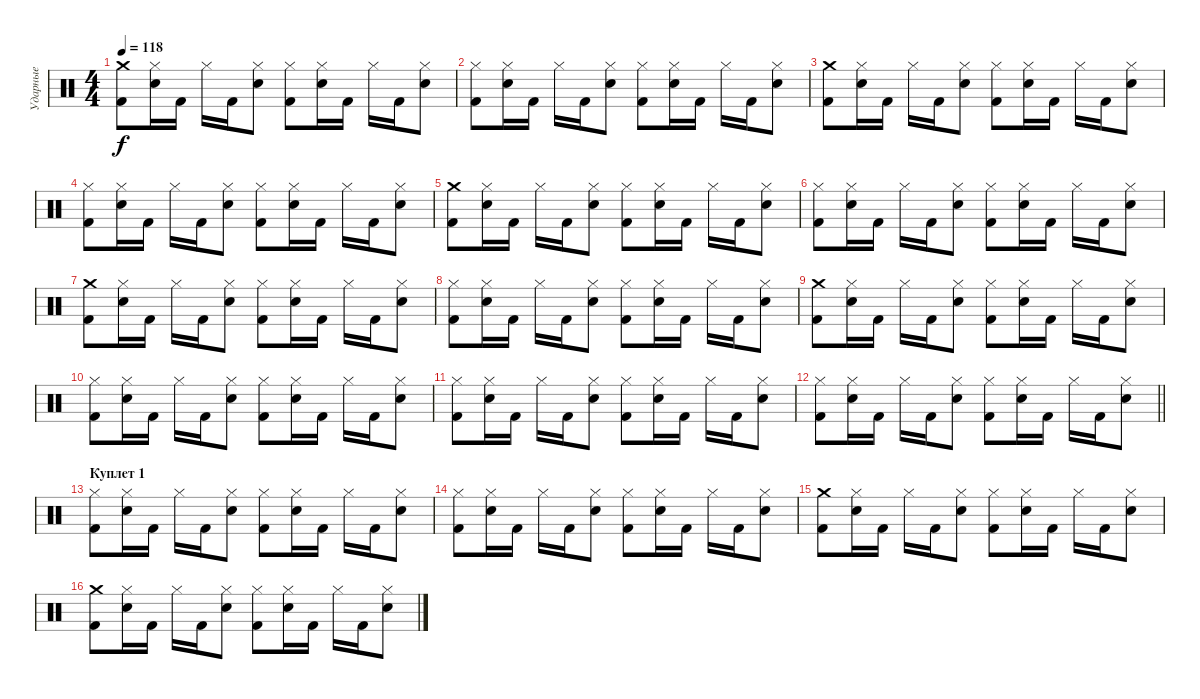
\track ("Ударные" "Ударные") {instrument percussion}
\staff {score}
\articulation defaults
\ts (4 4)
\tempo 118
\clef neutral
\ks c
("Crash medium (hit)" "Kick (hit) 2").8{dy f} ("Hi-Hat (closed)" "Snare (hit) 2").16 "Kick (hit) 2".16 "Hi-Hat (closed)".16 "Kick (hit) 2".16 ("Hi-Hat (closed)" "Snare (hit) 2").8 ("Hi-Hat (closed)" "Kick (hit) 2").8 ("Hi-Hat (closed)" "Snare (hit) 2").16 "Kick (hit) 2".16 "Hi-Hat (closed)".16 "Kick (hit) 2".16 ("Hi-Hat (closed)" "Snare (hit) 2").8 |
("Hi-Hat (closed)" "Kick (hit) 2").8 ("Hi-Hat (closed)" "Snare (hit) 2").16 "Kick (hit) 2".16 "Hi-Hat (closed)".16 "Kick (hit) 2".16 ("Hi-Hat (closed)" "Snare (hit) 2").8 ("Hi-Hat (closed)" "Kick (hit) 2").8 ("Hi-Hat (closed)" "Snare (hit) 2").16 "Kick (hit) 2".16 "Hi-Hat (closed)".16 "Kick (hit) 2".16 ("Hi-Hat (closed)" "Snare (hit) 2").8 |
("Crash medium (hit)" "Kick (hit) 2").8 ("Hi-Hat (closed)" "Snare (hit) 2").16 "Kick (hit) 2".16 "Hi-Hat (closed)".16 "Kick (hit) 2".16 ("Hi-Hat (closed)" "Snare (hit) 2").8 ("Hi-Hat (closed)" "Kick (hit) 2").8 ("Hi-Hat (closed)" "Snare (hit) 2").16 "Kick (hit) 2".16 "Hi-Hat (closed)".16 "Kick (hit) 2".16 ("Hi-Hat (closed)" "Snare (hit) 2").8 |
("Hi-Hat (closed)" "Kick (hit) 2").8 ("Hi-Hat (closed)" "Snare (hit) 2").16 "Kick (hit) 2".16 "Hi-Hat (closed)".16 "Kick (hit) 2".16 ("Hi-Hat (closed)" "Snare (hit) 2").8 ("Hi-Hat (closed)" "Kick (hit) 2").8 ("Hi-Hat (closed)" "Snare (hit) 2").16 "Kick (hit) 2".16 "Hi-Hat (closed)".16 "Kick (hit) 2".16 ("Hi-Hat (closed)" "Snare (hit) 2").8 |
("Crash medium (hit)" "Kick (hit) 2").8 ("Hi-Hat (closed)" "Snare (hit) 2").16 "Kick (hit) 2".16 "Hi-Hat (closed)".16 "Kick (hit) 2".16 ("Hi-Hat (closed)" "Snare (hit) 2").8 ("Hi-Hat (closed)" "Kick (hit) 2").8 ("Hi-Hat (closed)" "Snare (hit) 2").16 "Kick (hit) 2".16 "Hi-Hat (closed)".16 "Kick (hit) 2".16 ("Hi-Hat (closed)" "Snare (hit) 2").8 |
("Hi-Hat (closed)" "Kick (hit) 2").8 ("Hi-Hat (closed)" "Snare (hit) 2").16 "Kick (hit) 2".16 "Hi-Hat (closed)".16 "Kick (hit) 2".16 ("Hi-Hat (closed)" "Snare (hit) 2").8 ("Hi-Hat (closed)" "Kick (hit) 2").8 ("Hi-Hat (closed)" "Snare (hit) 2").16 "Kick (hit) 2".16 "Hi-Hat (closed)".16 "Kick (hit) 2".16 ("Hi-Hat (closed)" "Snare (hit) 2").8 |
("Crash medium (hit)" "Kick (hit) 2").8 ("Hi-Hat (closed)" "Snare (hit) 2").16 "Kick (hit) 2".16 "Hi-Hat (closed)".16 "Kick (hit) 2".16 ("Hi-Hat (closed)" "Snare (hit) 2").8 ("Hi-Hat (closed)" "Kick (hit) 2").8 ("Hi-Hat (closed)" "Snare (hit) 2").16 "Kick (hit) 2".16 "Hi-Hat (closed)".16 "Kick (hit) 2".16 ("Hi-Hat (closed)" "Snare (hit) 2").8 |
("Hi-Hat (closed)" "Kick (hit) 2").8 ("Hi-Hat (closed)" "Snare (hit) 2").16 "Kick (hit) 2".16 "Hi-Hat (closed)".16 "Kick (hit) 2".16 ("Hi-Hat (closed)" "Snare (hit) 2").8 ("Hi-Hat (closed)" "Kick (hit) 2").8 ("Hi-Hat (closed)" "Snare (hit) 2").16 "Kick (hit) 2".16 "Hi-Hat (closed)".16 "Kick (hit) 2".16 ("Hi-Hat (closed)" "Snare (hit) 2").8 |
("Crash medium (hit)" "Kick (hit) 2").8 ("Hi-Hat (closed)" "Snare (hit) 2").16 "Kick (hit) 2".16 "Hi-Hat (closed)".16 "Kick (hit) 2".16 ("Hi-Hat (closed)" "Snare (hit) 2").8 ("Hi-Hat (closed)" "Kick (hit) 2").8 ("Hi-Hat (closed)" "Snare (hit) 2").16 "Kick (hit) 2".16 "Hi-Hat (closed)".16 "Kick (hit) 2".16 ("Hi-Hat (closed)" "Snare (hit) 2").8 |
("Hi-Hat (closed)" "Kick (hit) 2").8 ("Hi-Hat (closed)" "Snare (hit) 2").16 "Kick (hit) 2".16 "Hi-Hat (closed)".16 "Kick (hit) 2".16 ("Hi-Hat (closed)" "Snare (hit) 2").8 ("Hi-Hat (closed)" "Kick (hit) 2").8 ("Hi-Hat (closed)" "Snare (hit) 2").16 "Kick (hit) 2".16 "Hi-Hat (closed)".16 "Kick (hit) 2".16 ("Hi-Hat (closed)" "Snare (hit) 2").8 |
("Hi-Hat (closed)" "Kick (hit) 2").8 ("Hi-Hat (closed)" "Snare (hit) 2").16 "Kick (hit) 2".16 "Hi-Hat (closed)".16 "Kick (hit) 2".16 ("Hi-Hat (closed)" "Snare (hit) 2").8 ("Hi-Hat (closed)" "Kick (hit) 2").8 ("Hi-Hat (closed)" "Snare (hit) 2").16 "Kick (hit) 2".16 "Hi-Hat (closed)".16 "Kick (hit) 2".16 ("Hi-Hat (closed)" "Snare (hit) 2").8 |
\barLineRight lightlight
("Hi-Hat (closed)" "Kick (hit) 2").8 ("Hi-Hat (closed)" "Snare (hit) 2").16 "Kick (hit) 2".16 "Hi-Hat (closed)".16 "Kick (hit) 2".16 ("Hi-Hat (closed)" "Snare (hit) 2").8 ("Hi-Hat (closed)" "Kick (hit) 2").8 ("Hi-Hat (closed)" "Snare (hit) 2").16 "Kick (hit) 2".16 "Hi-Hat (closed)".16 "Kick (hit) 2".16 ("Hi-Hat (closed)" "Snare (hit) 2").8 |
\section ("" "Куплет 1")
("Hi-Hat (closed)" "Kick (hit) 2").8 ("Hi-Hat (closed)" "Snare (hit) 2").16 "Kick (hit) 2".16 "Hi-Hat (closed)".16 "Kick (hit) 2".16 ("Hi-Hat (closed)" "Snare (hit) 2").8 ("Hi-Hat (closed)" "Kick (hit) 2").8 ("Hi-Hat (closed)" "Snare (hit) 2").16 "Kick (hit) 2".16 "Hi-Hat (closed)".16 "Kick (hit) 2".16 ("Hi-Hat (closed)" "Snare (hit) 2").8 |
("Hi-Hat (closed)" "Kick (hit) 2").8 ("Hi-Hat (closed)" "Snare (hit) 2").16 "Kick (hit) 2".16 "Hi-Hat (closed)".16 "Kick (hit) 2".16 ("Hi-Hat (closed)" "Snare (hit) 2").8 ("Hi-Hat (closed)" "Kick (hit) 2").8 ("Hi-Hat (closed)" "Snare (hit) 2").16 "Kick (hit) 2".16 "Hi-Hat (closed)".16 "Kick (hit) 2".16 ("Hi-Hat (closed)" "Snare (hit) 2").8 |
("Crash medium (hit)" "Kick (hit) 2").8 ("Hi-Hat (closed)" "Snare (hit) 2").16 "Kick (hit) 2".16 "Hi-Hat (closed)".16 "Kick (hit) 2".16 ("Hi-Hat (closed)" "Snare (hit) 2").8 ("Hi-Hat (closed)" "Kick (hit) 2").8 ("Hi-Hat (closed)" "Snare (hit) 2").16 "Kick (hit) 2".16 "Hi-Hat (closed)".16 "Kick (hit) 2".16 ("Hi-Hat (closed)" "Snare (hit) 2").8 |
("Crash medium (hit)" "Kick (hit) 2").8 ("Hi-Hat (closed)" "Snare (hit) 2").16 "Kick (hit) 2".16 "Hi-Hat (closed)".16 "Kick (hit) 2".16 ("Hi-Hat (closed)" "Snare (hit) 2").8 ("Hi-Hat (closed)" "Kick (hit) 2").8 ("Hi-Hat (closed)" "Snare (hit) 2").16 "Kick (hit) 2".16 "Hi-Hat (closed)".16 "Kick (hit) 2".16 ("Hi-Hat (closed)" "Snare (hit) 2").8
